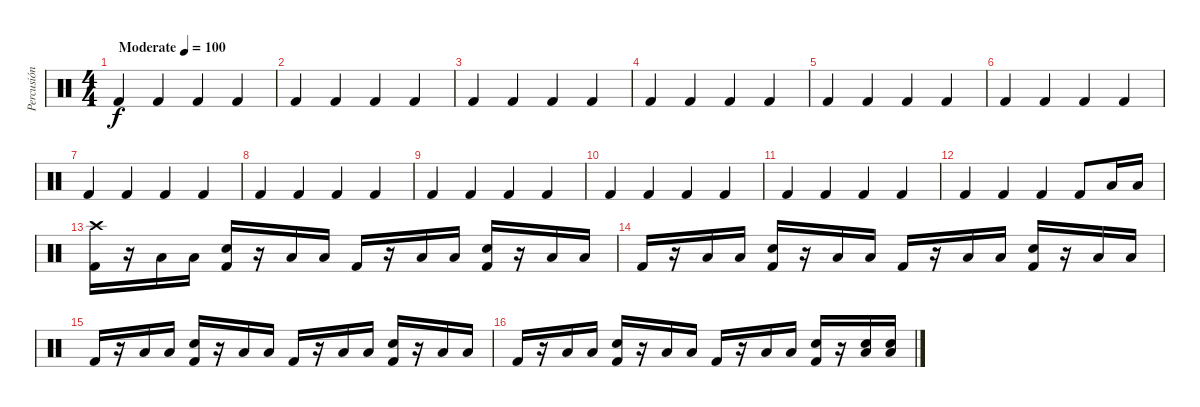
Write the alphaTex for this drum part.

\track ("Percusión" "Percusión") {instrument percussion}
\staff {score}
\articulation defaults
\ts (4 4)
\tempo (100 "Moderate")
\clef neutral
\ks c "Kick (hit) 2".4{dy f} "Kick (hit) 2".4 "Kick (hit) 2".4 "Kick (hit) 2".4
|
"Kick (hit) 2".4 "Kick (hit) 2".4 "Kick (hit) 2".4 "Kick (hit) 2".4 |
"Kick (hit) 2".4 "Kick (hit) 2".4 "Kick (hit) 2".4 "Kick (hit) 2".4 |
"Kick (hit) 2".4 "Kick (hit) 2".4 "Kick (hit) 2".4 "Kick (hit) 2".4 |
"Kick (hit) 2".4 "Kick (hit) 2".4 "Kick (hit) 2".4 "Kick (hit) 2".4 |
"Kick (hit) 2".4 "Kick (hit) 2".4 "Kick (hit) 2".4 "Kick (hit) 2".4 |
"Kick (hit) 2".4 "Kick (hit) 2".4 "Kick (hit) 2".4 "Kick (hit) 2".4 |
"Kick (hit) 2".4 "Kick (hit) 2".4 "Kick (hit) 2".4 "Kick (hit) 2".4 |
"Kick (hit) 2".4 "Kick (hit) 2".4 "Kick (hit) 2".4 "Kick (hit) 2".4 |
"Kick (hit) 2".4 "Kick (hit) 2".4 "Kick (hit) 2".4 "Kick (hit) 2".4 |
"Kick (hit) 2".4 "Kick (hit) 2".4 "Kick (hit) 2".4 "Kick (hit) 2".4 |
"Kick (hit) 2".4 "Kick (hit) 2".4 "Kick (hit) 2".4 "Kick (hit) 2".8 "Low Tom (hit)".16 "Low Tom (hit)".16 |
("Kick (hit) 2" "Crash high (hit)").16 r.16 "Low Tom (hit)".16 "Low Tom (hit)".16 ("Kick (hit) 2" "Snare (hit) 2").16 r.16 "Low Tom (hit)".16 "Low Tom (hit)".16 "Kick (hit) 2".16 r.16 "Low Tom (hit)".16 "Low Tom (hit)".16 ("Kick (hit) 2" "Snare (hit) 2").16 r.16 "Low Tom (hit)".16 "Low Tom (hit)".16 |
"Kick (hit) 2".16 r.16 "Low Tom (hit)".16 "Low Tom (hit)".16 ("Kick (hit) 2" "Snare (hit) 2").16 r.16 "Low Tom (hit)".16 "Low Tom (hit)".16 "Kick (hit) 2".16 r.16 "Low Tom (hit)".16 "Low Tom (hit)".16 ("Kick (hit) 2" "Snare (hit) 2").16 r.16 "Low Tom (hit)".16 "Low Tom (hit)".16 |
"Kick (hit) 2".16 r.16 "Low Tom (hit)".16 "Low Tom (hit)".16 ("Kick (hit) 2" "Snare (hit) 2").16 r.16 "Low Tom (hit)".16 "Low Tom (hit)".16 "Kick (hit) 2".16 r.16 "Low Tom (hit)".16 "Low Tom (hit)".16 ("Kick (hit) 2" "Snare (hit) 2").16 r.16 "Low Tom (hit)".16 "Low Tom (hit)".16 |
"Kick (hit) 2".16 r.16 "Low Tom (hit)".16 "Low Tom (hit)".16 ("Kick (hit) 2" "Snare (hit) 2").16 r.16 "Low Tom (hit)".16 "Low Tom (hit)".16 "Kick (hit) 2".16 r.16 "Low Tom (hit)".16 "Low Tom (hit)".16 ("Kick (hit) 2" "Snare (hit) 2").16 r.16 ("Low Tom (hit)" "Snare (hit) 2").16 ("Low Tom (hit)" "Snare (hit) 2").16
